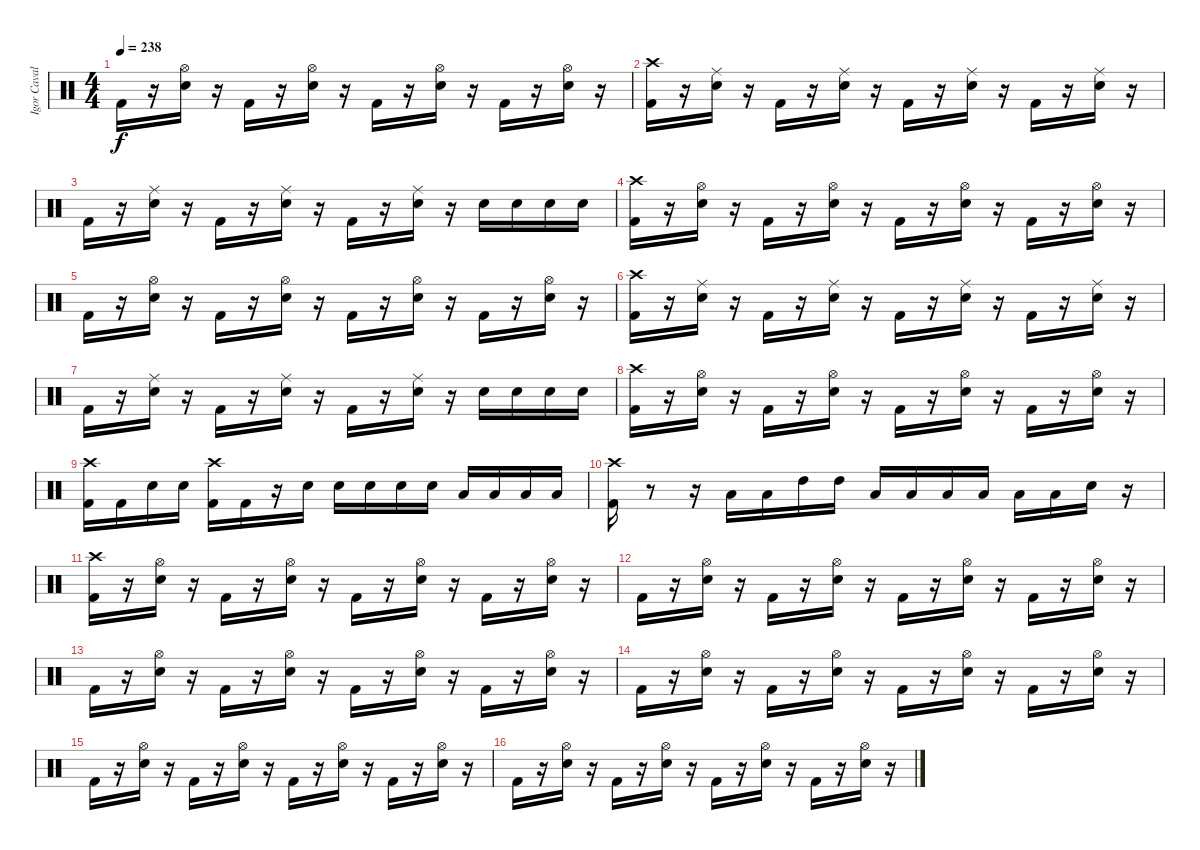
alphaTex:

\track ("Igor Cavalera" "Igor Caval") {instrument percussion}
\staff {score}
\articulation defaults
\ts (4 4)
\tempo 238
\clef neutral
\ks c "Kick (hit) 2".16{dy f}
r.16 ("Snare (hit) 2" "Hi-Hat (open)").16 r.16 "Kick (hit) 2".16 r.16 ("Snare (hit) 2" "Hi-Hat (open)").16 r.16 "Kick (hit) 2".16 r.16 ("Snare (hit) 2" "Hi-Hat (open)").16 r.16 "Kick (hit) 2".16 r.16 ("Snare (hit) 2" "Hi-Hat (open)").16 r.16 |
("Kick (hit) 2" "Crash high (hit)").16 r.16 ("Snare (hit) 2" "Ride (middle)").16 r.16 "Kick (hit) 2".16 r.16 ("Snare (hit) 2" "Ride (middle)").16 r.16 "Kick (hit) 2".16 r.16 ("Snare (hit) 2" "Ride (middle)").16 r.16 "Kick (hit) 2".16 r.16 ("Snare (hit) 2" "Ride (middle)").16 r.16 |
"Kick (hit) 2".16 r.16 ("Snare (hit) 2" "Ride (middle)").16 r.16 "Kick (hit) 2".16 r.16 ("Snare (hit) 2" "Ride (middle)").16 r.16 "Kick (hit) 2".16 r.16 ("Snare (hit) 2" "Ride (middle)").16 r.16 "Snare (hit) 2".16 "Snare (hit) 2".16 "Snare (hit) 2".16 "Snare (hit) 2".16 |
("Kick (hit) 2" "Crash high (hit)").16 r.16 ("Snare (hit) 2" "Hi-Hat (open)").16 r.16 "Kick (hit) 2".16 r.16 ("Snare (hit) 2" "Hi-Hat (open)").16 r.16 "Kick (hit) 2".16 r.16 ("Snare (hit) 2" "Hi-Hat (open)").16 r.16 "Kick (hit) 2".16 r.16 ("Snare (hit) 2" "Hi-Hat (open)").16 r.16 |
"Kick (hit) 2".16 r.16 ("Snare (hit) 2" "Hi-Hat (open)").16 r.16 "Kick (hit) 2".16 r.16 ("Snare (hit) 2" "Hi-Hat (open)").16 r.16 "Kick (hit) 2".16 r.16 ("Snare (hit) 2" "Hi-Hat (open)").16 r.16 "Kick (hit) 2".16 r.16 ("Snare (hit) 2" "Hi-Hat (open)").16 r.16 |
("Kick (hit) 2" "Crash high (hit)").16 r.16 ("Snare (hit) 2" "Ride (middle)").16 r.16 "Kick (hit) 2".16 r.16 ("Snare (hit) 2" "Ride (middle)").16 r.16 "Kick (hit) 2".16 r.16 ("Snare (hit) 2" "Ride (middle)").16 r.16 "Kick (hit) 2".16 r.16 ("Snare (hit) 2" "Ride (middle)").16 r.16 |
"Kick (hit) 2".16 r.16 ("Snare (hit) 2" "Ride (middle)").16 r.16 "Kick (hit) 2".16 r.16 ("Snare (hit) 2" "Ride (middle)").16 r.16 "Kick (hit) 2".16 r.16 ("Snare (hit) 2" "Ride (middle)").16 r.16 "Snare (hit) 2".16 "Snare (hit) 2".16 "Snare (hit) 2".16 "Snare (hit) 2".16 |
("Kick (hit) 2" "Crash high (hit)").16 r.16 ("Snare (hit) 2" "Hi-Hat (open)").16 r.16 "Kick (hit) 2".16 r.16 ("Snare (hit) 2" "Hi-Hat (open)").16 r.16 "Kick (hit) 2".16 r.16 ("Snare (hit) 2" "Hi-Hat (open)").16 r.16 "Kick (hit) 2".16 r.16 ("Snare (hit) 2" "Hi-Hat (open)").16 r.16 |
("Kick (hit) 2" "Crash high (hit)").16 "Kick (hit) 2".16 "Snare (hit) 2".16 "Snare (hit) 2".16 ("Kick (hit) 2" "Crash high (hit)").16 "Kick (hit) 2".16 r.16 "Snare (hit) 2".16 "Snare (hit) 2".16 "Snare (hit) 2".16 "Snare (hit) 2".16 "Snare (hit) 2".16 "Low Tom (hit)".16 "Low Tom (hit)".16 "Low Floor Tom (hit)".16 "Low Floor Tom (hit)".16 |
("Kick (hit) 2" "Crash high (hit)").16 r.8 r.16 "Low Tom (hit)".16 "Low Tom (hit)".16 "High Tom (hit)".16 "High Tom (hit)".16 "Low Tom (hit)".16 "Low Tom (hit)".16 "Low Floor Tom (hit)".16 "Low Floor Tom (hit)".16 "Low Tom (hit)".16 "Low Floor Tom (hit)".16 "Snare (hit) 2".16 r.16 |
("Kick (hit) 2" "Crash high (hit)").16 r.16 ("Snare (hit) 2" "Hi-Hat (open)").16 r.16 "Kick (hit) 2".16 r.16 ("Snare (hit) 2" "Hi-Hat (open)").16 r.16 "Kick (hit) 2".16 r.16 ("Snare (hit) 2" "Hi-Hat (open)").16 r.16 "Kick (hit) 2".16 r.16 ("Snare (hit) 2" "Hi-Hat (open)").16 r.16 |
"Kick (hit) 2".16 r.16 ("Snare (hit) 2" "Hi-Hat (open)").16 r.16 "Kick (hit) 2".16 r.16 ("Snare (hit) 2" "Hi-Hat (open)").16 r.16 "Kick (hit) 2".16 r.16 ("Snare (hit) 2" "Hi-Hat (open)").16 r.16 "Kick (hit) 2".16 r.16 ("Snare (hit) 2" "Hi-Hat (open)").16 r.16 |
"Kick (hit) 2".16 r.16 ("Snare (hit) 2" "Hi-Hat (open)").16 r.16 "Kick (hit) 2".16 r.16 ("Snare (hit) 2" "Hi-Hat (open)").16 r.16 "Kick (hit) 2".16 r.16 ("Snare (hit) 2" "Hi-Hat (open)").16 r.16 "Kick (hit) 2".16 r.16 ("Snare (hit) 2" "Hi-Hat (open)").16 r.16 |
"Kick (hit) 2".16 r.16 ("Snare (hit) 2" "Hi-Hat (open)").16 r.16 "Kick (hit) 2".16 r.16 ("Snare (hit) 2" "Hi-Hat (open)").16 r.16 "Kick (hit) 2".16 r.16 ("Snare (hit) 2" "Hi-Hat (open)").16 r.16 "Kick (hit) 2".16 r.16 ("Snare (hit) 2" "Hi-Hat (open)").16 r.16 |
"Kick (hit) 2".16 r.16 ("Snare (hit) 2" "Hi-Hat (open)").16 r.16 "Kick (hit) 2".16 r.16 ("Snare (hit) 2" "Hi-Hat (open)").16 r.16 "Kick (hit) 2".16 r.16 ("Snare (hit) 2" "Hi-Hat (open)").16 r.16 "Kick (hit) 2".16 r.16 ("Snare (hit) 2" "Hi-Hat (open)").16 r.16 |
"Kick (hit) 2".16 r.16 ("Snare (hit) 2" "Hi-Hat (open)").16 r.16 "Kick (hit) 2".16 r.16 ("Snare (hit) 2" "Hi-Hat (open)").16 r.16 "Kick (hit) 2".16 r.16 ("Snare (hit) 2" "Hi-Hat (open)").16 r.16 "Kick (hit) 2".16 r.16 ("Snare (hit) 2" "Hi-Hat (open)").16 r.16
